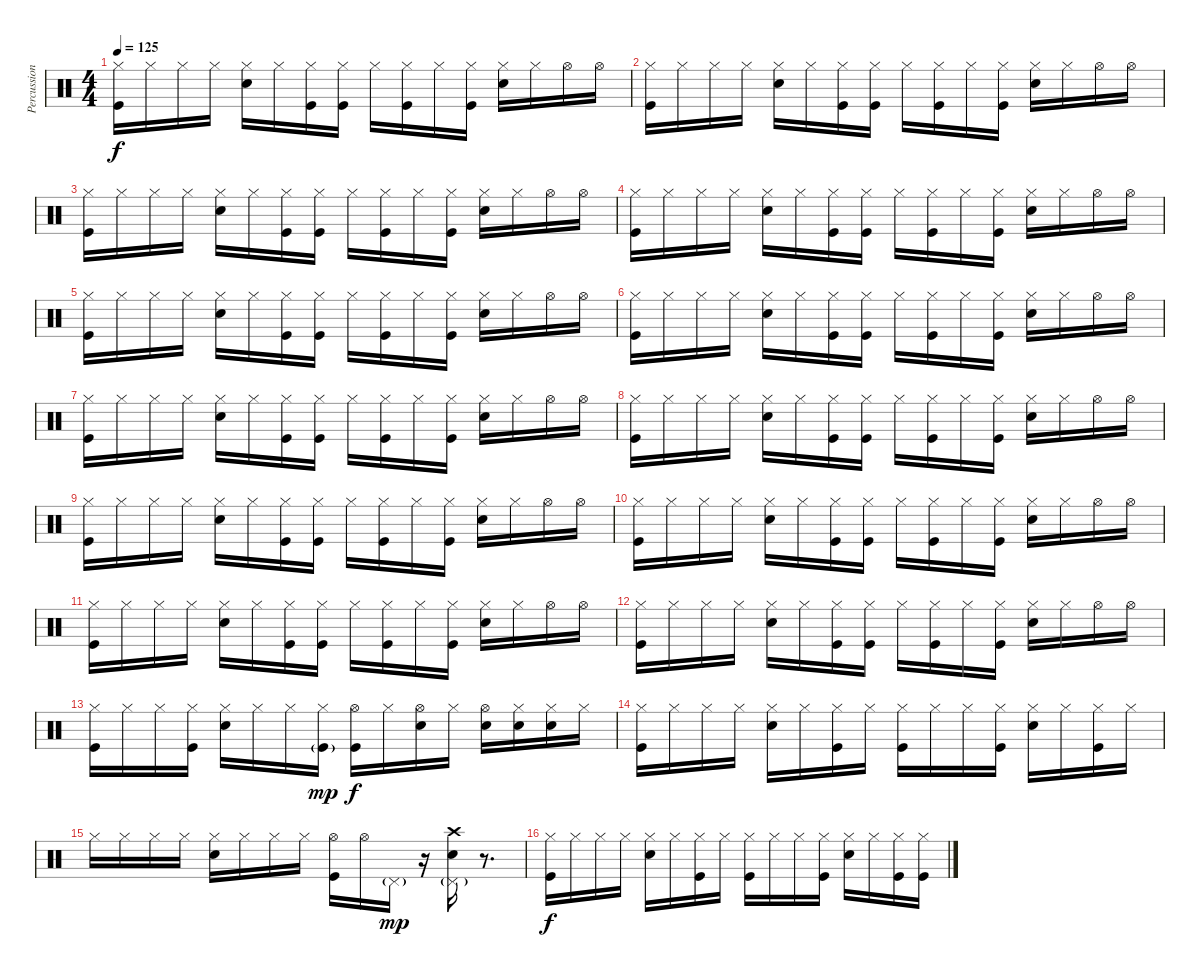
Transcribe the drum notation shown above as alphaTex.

\track ("Percussion" "Percussion") {instrument percussion}
\staff {score}
\articulation defaults
\ts (4 4)
\tempo 125
\clef neutral
\ks c
("Hi-Hat (closed)" "Kick (hit)").16{dy f} "Hi-Hat (closed)".16 "Hi-Hat (closed)".16 "Hi-Hat (closed)".16 ("Hi-Hat (closed)" "Electric Snare (hit)").16 "Hi-Hat (closed)".16 ("Hi-Hat (closed)" "Kick (hit)").16 ("Hi-Hat (closed)" "Kick (hit)").16 "Hi-Hat (closed)".16 ("Hi-Hat (closed)" "Kick (hit)").16 "Hi-Hat (closed)".16 ("Hi-Hat (closed)" "Kick (hit)").16 ("Hi-Hat (closed)" "Electric Snare (hit)").16 "Hi-Hat (closed)".16 "Hi-Hat (open)".16 "Hi-Hat (open)".16 |
("Hi-Hat (closed)" "Kick (hit)").16 "Hi-Hat (closed)".16 "Hi-Hat (closed)".16 "Hi-Hat (closed)".16 ("Hi-Hat (closed)" "Electric Snare (hit)").16 "Hi-Hat (closed)".16 ("Hi-Hat (closed)" "Kick (hit)").16 ("Hi-Hat (closed)" "Kick (hit)").16 "Hi-Hat (closed)".16 ("Hi-Hat (closed)" "Kick (hit)").16 "Hi-Hat (closed)".16 ("Hi-Hat (closed)" "Kick (hit)").16 ("Hi-Hat (closed)" "Electric Snare (hit)").16 "Hi-Hat (closed)".16 "Hi-Hat (open)".16 "Hi-Hat (open)".16 |
("Hi-Hat (closed)" "Kick (hit)").16 "Hi-Hat (closed)".16 "Hi-Hat (closed)".16 "Hi-Hat (closed)".16 ("Hi-Hat (closed)" "Electric Snare (hit)").16 "Hi-Hat (closed)".16 ("Hi-Hat (closed)" "Kick (hit)").16 ("Hi-Hat (closed)" "Kick (hit)").16 "Hi-Hat (closed)".16 ("Hi-Hat (closed)" "Kick (hit)").16 "Hi-Hat (closed)".16 ("Hi-Hat (closed)" "Kick (hit)").16 ("Hi-Hat (closed)" "Electric Snare (hit)").16 "Hi-Hat (closed)".16 "Hi-Hat (open)".16 "Hi-Hat (open)".16 |
("Hi-Hat (closed)" "Kick (hit)").16 "Hi-Hat (closed)".16 "Hi-Hat (closed)".16 "Hi-Hat (closed)".16 ("Hi-Hat (closed)" "Electric Snare (hit)").16 "Hi-Hat (closed)".16 ("Hi-Hat (closed)" "Kick (hit)").16 ("Hi-Hat (closed)" "Kick (hit)").16 "Hi-Hat (closed)".16 ("Hi-Hat (closed)" "Kick (hit)").16 "Hi-Hat (closed)".16 ("Hi-Hat (closed)" "Kick (hit)").16 ("Hi-Hat (closed)" "Electric Snare (hit)").16 "Hi-Hat (closed)".16 "Hi-Hat (open)".16 "Hi-Hat (open)".16 |
("Hi-Hat (closed)" "Kick (hit)").16 "Hi-Hat (closed)".16 "Hi-Hat (closed)".16 "Hi-Hat (closed)".16 ("Hi-Hat (closed)" "Electric Snare (hit)").16 "Hi-Hat (closed)".16 ("Hi-Hat (closed)" "Kick (hit)").16 ("Hi-Hat (closed)" "Kick (hit)").16 "Hi-Hat (closed)".16 ("Hi-Hat (closed)" "Kick (hit)").16 "Hi-Hat (closed)".16 ("Hi-Hat (closed)" "Kick (hit)").16 ("Hi-Hat (closed)" "Electric Snare (hit)").16 "Hi-Hat (closed)".16 "Hi-Hat (open)".16 "Hi-Hat (open)".16 |
("Hi-Hat (closed)" "Kick (hit)").16 "Hi-Hat (closed)".16 "Hi-Hat (closed)".16 "Hi-Hat (closed)".16 ("Hi-Hat (closed)" "Electric Snare (hit)").16 "Hi-Hat (closed)".16 ("Hi-Hat (closed)" "Kick (hit)").16 ("Hi-Hat (closed)" "Kick (hit)").16 "Hi-Hat (closed)".16 ("Hi-Hat (closed)" "Kick (hit)").16 "Hi-Hat (closed)".16 ("Hi-Hat (closed)" "Kick (hit)").16 ("Hi-Hat (closed)" "Electric Snare (hit)").16 "Hi-Hat (closed)".16 "Hi-Hat (open)".16 "Hi-Hat (open)".16 |
("Hi-Hat (closed)" "Kick (hit)").16 "Hi-Hat (closed)".16 "Hi-Hat (closed)".16 "Hi-Hat (closed)".16 ("Hi-Hat (closed)" "Electric Snare (hit)").16 "Hi-Hat (closed)".16 ("Hi-Hat (closed)" "Kick (hit)").16 ("Hi-Hat (closed)" "Kick (hit)").16 "Hi-Hat (closed)".16 ("Hi-Hat (closed)" "Kick (hit)").16 "Hi-Hat (closed)".16 ("Hi-Hat (closed)" "Kick (hit)").16 ("Hi-Hat (closed)" "Electric Snare (hit)").16 "Hi-Hat (closed)".16 "Hi-Hat (open)".16 "Hi-Hat (open)".16 |
("Hi-Hat (closed)" "Kick (hit)").16 "Hi-Hat (closed)".16 "Hi-Hat (closed)".16 "Hi-Hat (closed)".16 ("Hi-Hat (closed)" "Electric Snare (hit)").16 "Hi-Hat (closed)".16 ("Hi-Hat (closed)" "Kick (hit)").16 ("Hi-Hat (closed)" "Kick (hit)").16 "Hi-Hat (closed)".16 ("Hi-Hat (closed)" "Kick (hit)").16 "Hi-Hat (closed)".16 ("Hi-Hat (closed)" "Kick (hit)").16 ("Hi-Hat (closed)" "Electric Snare (hit)").16 "Hi-Hat (closed)".16 "Hi-Hat (open)".16 "Hi-Hat (open)".16 |
("Hi-Hat (closed)" "Kick (hit)").16 "Hi-Hat (closed)".16 "Hi-Hat (closed)".16 "Hi-Hat (closed)".16 ("Hi-Hat (closed)" "Electric Snare (hit)").16 "Hi-Hat (closed)".16 ("Hi-Hat (closed)" "Kick (hit)").16 ("Hi-Hat (closed)" "Kick (hit)").16 "Hi-Hat (closed)".16 ("Hi-Hat (closed)" "Kick (hit)").16 "Hi-Hat (closed)".16 ("Hi-Hat (closed)" "Kick (hit)").16 ("Hi-Hat (closed)" "Electric Snare (hit)").16 "Hi-Hat (closed)".16 "Hi-Hat (open)".16 "Hi-Hat (open)".16 |
("Hi-Hat (closed)" "Kick (hit)").16 "Hi-Hat (closed)".16 "Hi-Hat (closed)".16 "Hi-Hat (closed)".16 ("Hi-Hat (closed)" "Electric Snare (hit)").16 "Hi-Hat (closed)".16 ("Hi-Hat (closed)" "Kick (hit)").16 ("Hi-Hat (closed)" "Kick (hit)").16 "Hi-Hat (closed)".16 ("Hi-Hat (closed)" "Kick (hit)").16 "Hi-Hat (closed)".16 ("Hi-Hat (closed)" "Kick (hit)").16 ("Hi-Hat (closed)" "Electric Snare (hit)").16 "Hi-Hat (closed)".16 "Hi-Hat (open)".16 "Hi-Hat (open)".16 |
("Hi-Hat (closed)" "Kick (hit)").16 "Hi-Hat (closed)".16 "Hi-Hat (closed)".16 "Hi-Hat (closed)".16 ("Hi-Hat (closed)" "Electric Snare (hit)").16 "Hi-Hat (closed)".16 ("Hi-Hat (closed)" "Kick (hit)").16 ("Hi-Hat (closed)" "Kick (hit)").16 "Hi-Hat (closed)".16 ("Hi-Hat (closed)" "Kick (hit)").16 "Hi-Hat (closed)".16 ("Hi-Hat (closed)" "Kick (hit)").16 ("Hi-Hat (closed)" "Electric Snare (hit)").16 "Hi-Hat (closed)".16 "Hi-Hat (open)".16 "Hi-Hat (open)".16 |
("Hi-Hat (closed)" "Kick (hit)").16 "Hi-Hat (closed)".16 "Hi-Hat (closed)".16 "Hi-Hat (closed)".16 ("Hi-Hat (closed)" "Electric Snare (hit)").16 "Hi-Hat (closed)".16 ("Hi-Hat (closed)" "Kick (hit)").16 ("Hi-Hat (closed)" "Kick (hit)").16 "Hi-Hat (closed)".16 ("Hi-Hat (closed)" "Kick (hit)").16 "Hi-Hat (closed)".16 ("Hi-Hat (closed)" "Kick (hit)").16 ("Hi-Hat (closed)" "Electric Snare (hit)").16 "Hi-Hat (closed)".16 "Hi-Hat (open)".16 "Hi-Hat (open)".16 |
("Hi-Hat (closed)" "Kick (hit)").16 "Hi-Hat (closed)".16 "Hi-Hat (closed)".16 ("Hi-Hat (closed)" "Kick (hit)").16 ("Hi-Hat (closed)" "Electric Snare (hit)").16 "Hi-Hat (closed)".16 "Hi-Hat (closed)".16 ("Hi-Hat (closed)" "Kick (hit)"{g}).16{dy mp} ("Hi-Hat (open)" "Kick (hit)").16{dy f} "Hi-Hat (closed)".16 ("Hi-Hat (open)" "Electric Snare (hit)").16 "Hi-Hat (closed)".16 ("Hi-Hat (open)" "Electric Snare (hit)").16 ("Hi-Hat (closed)" "Electric Snare (hit)").16 ("Hi-Hat (closed)" "Electric Snare (hit)").16 "Hi-Hat (closed)".16 |
("Hi-Hat (closed)" "Kick (hit)").16 "Hi-Hat (closed)".16 "Hi-Hat (closed)".16 "Hi-Hat (closed)".16 ("Hi-Hat (closed)" "Electric Snare (hit)").16 "Hi-Hat (closed)".16 ("Hi-Hat (closed)" "Kick (hit)").16 "Hi-Hat (closed)".16 ("Hi-Hat (closed)" "Kick (hit)").16 "Hi-Hat (closed)".16 "Hi-Hat (closed)".16 ("Hi-Hat (closed)" "Kick (hit)").16 ("Hi-Hat (closed)" "Electric Snare (hit)").16 "Hi-Hat (closed)".16 ("Hi-Hat (closed)" "Kick (hit)").16 "Hi-Hat (closed)".16 |
"Hi-Hat (closed)".16 "Hi-Hat (closed)".16 "Hi-Hat (closed)".16 "Hi-Hat (closed)".16 ("Hi-Hat (closed)" "Electric Snare (hit)").16 "Hi-Hat (closed)".16 "Hi-Hat (closed)".16 "Hi-Hat (closed)".16 ("Hi-Hat (open)" "Kick (hit)").16 "Hi-Hat (open)".16 "Pedal Hi-Hat (hit)"{g}.16{dy mp} r.16 ("Pedal Hi-Hat (hit)"{g} "Crash high (hit)" "Electric Snare (hit)").16 r.8{d} |
("Hi-Hat (closed)" "Kick (hit)").16{dy f} "Hi-Hat (closed)".16 "Hi-Hat (closed)".16 "Hi-Hat (closed)".16 ("Hi-Hat (closed)" "Electric Snare (hit)").16 "Hi-Hat (closed)".16 ("Hi-Hat (closed)" "Kick (hit)").16 "Hi-Hat (closed)".16 ("Hi-Hat (closed)" "Kick (hit)").16 "Hi-Hat (closed)".16 "Hi-Hat (closed)".16 ("Hi-Hat (closed)" "Kick (hit)").16 ("Hi-Hat (closed)" "Electric Snare (hit)").16 "Hi-Hat (closed)".16 ("Hi-Hat (closed)" "Kick (hit)").16 ("Hi-Hat (closed)" "Kick (hit)").16
